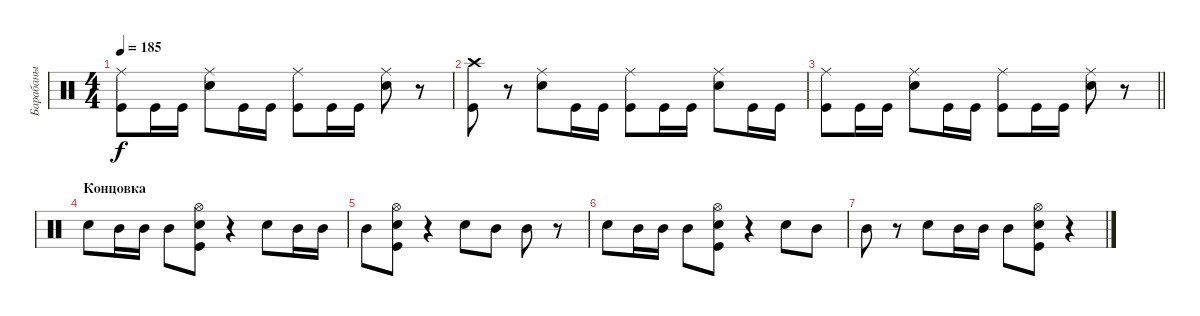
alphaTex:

\track ("Барабаны" "Барабаны") {instrument percussion}
\staff {score}
\articulation defaults
\ts (4 4)
\tempo 185
\clef neutral
\ks c
("Kick (hit)" "Ride (middle)").8{dy f} "Kick (hit)".16 "Kick (hit)".16 ("Snare (hit) 2" "Ride (middle)").8 "Kick (hit)".16 "Kick (hit)".16 ("Kick (hit)" "Ride (middle)").8 "Kick (hit)".16 "Kick (hit)".16 ("Snare (hit) 2" "Ride (middle)").8 r.8 |
("Kick (hit)" "Crash high (hit)").8 r.8 ("Snare (hit) 2" "Ride (middle)").8 "Kick (hit)".16 "Kick (hit)".16 ("Kick (hit)" "Ride (middle)").8 "Kick (hit)".16 "Kick (hit)".16 ("Snare (hit) 2" "Ride (middle)").8 "Kick (hit)".16 "Kick (hit)".16 |
\barLineRight lightlight
("Kick (hit)" "Ride (middle)").8 "Kick (hit)".16 "Kick (hit)".16 ("Snare (hit) 2" "Ride (middle)").8 "Kick (hit)".16 "Kick (hit)".16 ("Kick (hit)" "Ride (middle)").8 "Kick (hit)".16 "Kick (hit)".16 ("Snare (hit) 2" "Ride (middle)").8 r.8 |
\section ("" "Концовка")
"Snare (hit) 2".8 "Mid Tom (hit)".16 "Mid Tom (hit)".16 "Mid Tom (hit)".8 ("Kick (hit)" "Snare (hit) 2" "Hi-Hat (open)").8 r.4 "Snare (hit) 2".8 "Mid Tom (hit)".16 "Mid Tom (hit)".16 |
"Mid Tom (hit)".8 ("Kick (hit)" "Snare (hit) 2" "Hi-Hat (open)").8 r.4 "Snare (hit) 2".8 "Mid Tom (hit)".8 "Mid Tom (hit)".8 r.8 |
"Snare (hit) 2".8 "Mid Tom (hit)".16 "Mid Tom (hit)".16 "Mid Tom (hit)".8 ("Kick (hit)" "Snare (hit) 2" "Hi-Hat (open)").8 r.4 "Snare (hit) 2".8 "Mid Tom (hit)".8 |
"Mid Tom (hit)".8 r.8 "Snare (hit) 2".8 "Mid Tom (hit)".16 "Mid Tom (hit)".16 "Mid Tom (hit)".8 ("Kick (hit)" "Snare (hit) 2" "Hi-Hat (open)").8 r.4
